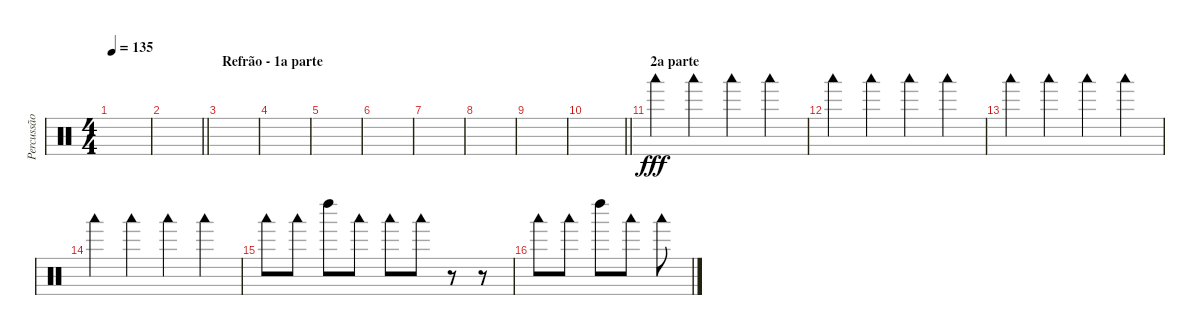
\track ("Percussão" "Percussão") {instrument percussion}
\staff {score}
\articulation defaults
\ts (4 4)
\tempo 135
\clef neutral
\ks c
|
\barLineRight lightlight
|
\section ("" "Refrão - 1a parte")
|
|
|
|
|
|
|
\barLineRight lightlight
|
\section ("" "2a parte")
"Woodblock low (hit)".4{dy fff} "Woodblock low (hit)".4 "Woodblock low (hit)".4 "Woodblock low (hit)".4 |
"Woodblock low (hit)".4 "Woodblock low (hit)".4 "Woodblock low (hit)".4 "Woodblock low (hit)".4 |
"Woodblock low (hit)".4 "Woodblock low (hit)".4 "Woodblock low (hit)".4 "Woodblock low (hit)".4 |
"Woodblock low (hit)".4 "Woodblock low (hit)".4 "Woodblock low (hit)".4 "Woodblock low (hit)".4 |
"Woodblock low (hit)".8 "Woodblock low (hit)".8 "Left Maraca (hit)".8 "Woodblock low (hit)".8 "Woodblock low (hit)".8 "Woodblock low (hit)".8 r.8 r.8 |
"Woodblock low (hit)".8 "Woodblock low (hit)".8 "Left Maraca (hit)".8 "Woodblock low (hit)".8 "Woodblock low (hit)".8
